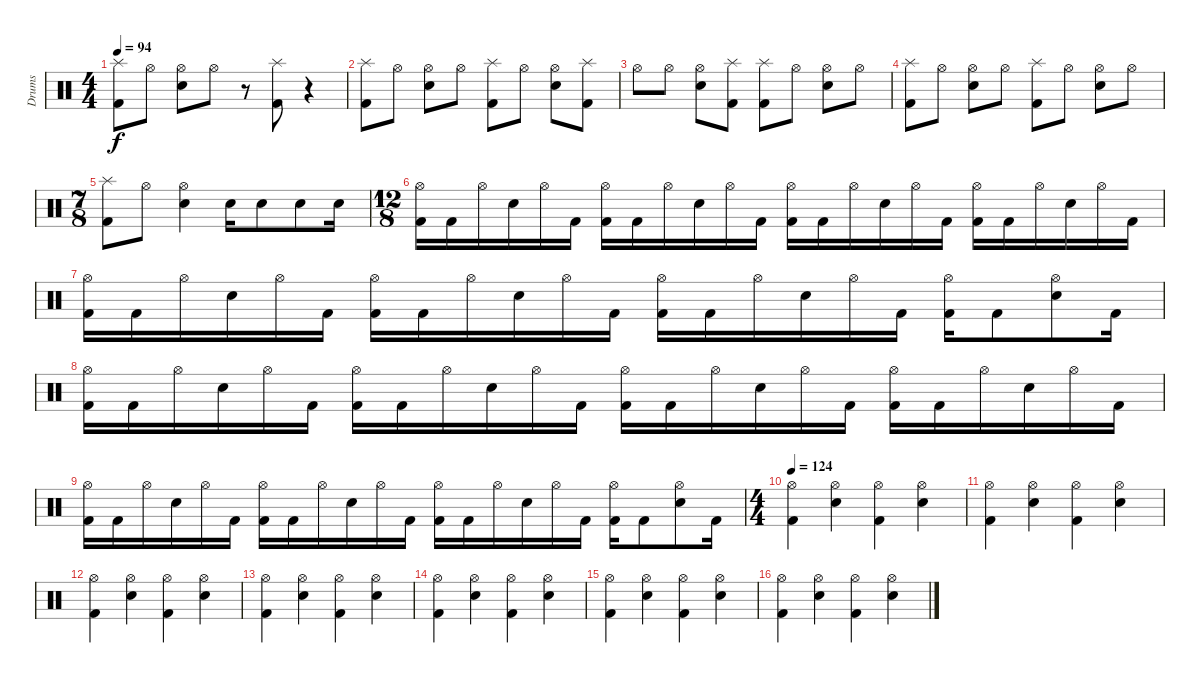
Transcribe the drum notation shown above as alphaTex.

\track ("Drums" "Drums") {instrument percussion}
\staff {score}
\articulation defaults
\ts (4 4)
\tempo 94
\clef neutral
\ks c
("Splash (hit)" "Kick (hit) 2").8{dy f} "Hi-Hat (open)".8 ("Hi-Hat (open)" "Electric Snare (hit)").8 "Hi-Hat (open)".8 r.8 ("Splash (hit)" "Kick (hit) 2").8 r.4 |
("Splash (hit)" "Kick (hit) 2").8 "Hi-Hat (open)".8 ("Hi-Hat (open)" "Electric Snare (hit)").8 "Hi-Hat (open)".8 ("Splash (hit)" "Kick (hit) 2").8 "Hi-Hat (open)".8 ("Hi-Hat (open)" "Electric Snare (hit)").8 ("Splash (hit)" "Kick (hit) 2").8 |
"Hi-Hat (open)".8 "Hi-Hat (open)".8 ("Hi-Hat (open)" "Electric Snare (hit)").8 ("Splash (hit)" "Kick (hit) 2").8 ("Splash (hit)" "Kick (hit) 2").8 "Hi-Hat (open)".8 ("Hi-Hat (open)" "Electric Snare (hit)").8 "Hi-Hat (open)".8 |
("Splash (hit)" "Kick (hit) 2").8 "Hi-Hat (open)".8 ("Hi-Hat (open)" "Electric Snare (hit)").8 "Hi-Hat (open)".8 ("Splash (hit)" "Kick (hit) 2").8 "Hi-Hat (open)".8 ("Hi-Hat (open)" "Electric Snare (hit)").8 "Hi-Hat (open)".8 |
\ts (7 8)
("Splash (hit)" "Kick (hit) 2").8 "Hi-Hat (open)".8 ("Hi-Hat (open)" "Electric Snare (hit)").4 "Electric Snare (hit)".16 "Electric Snare (hit)".8 "Electric Snare (hit)".8 "Electric Snare (hit)".16 |
\ts (12 8)
("Hi-Hat (open)" "Kick (hit) 2").16 "Kick (hit) 2".16 "Hi-Hat (open)".16 "Electric Snare (hit)".16 "Hi-Hat (open)".16 "Kick (hit) 2".16 ("Hi-Hat (open)" "Kick (hit) 2").16 "Kick (hit) 2".16 "Hi-Hat (open)".16 "Electric Snare (hit)".16 "Hi-Hat (open)".16 "Kick (hit) 2".16 ("Hi-Hat (open)" "Kick (hit) 2").16 "Kick (hit) 2".16 "Hi-Hat (open)".16 "Electric Snare (hit)".16 "Hi-Hat (open)".16 "Kick (hit) 2".16 ("Hi-Hat (open)" "Kick (hit) 2").16 "Kick (hit) 2".16 "Hi-Hat (open)".16 "Electric Snare (hit)".16 "Hi-Hat (open)".16 "Kick (hit) 2".16 |
("Hi-Hat (open)" "Kick (hit) 2").16 "Kick (hit) 2".16 "Hi-Hat (open)".16 "Electric Snare (hit)".16 "Hi-Hat (open)".16 "Kick (hit) 2".16 ("Hi-Hat (open)" "Kick (hit) 2").16 "Kick (hit) 2".16 "Hi-Hat (open)".16 "Electric Snare (hit)".16 "Hi-Hat (open)".16 "Kick (hit) 2".16 ("Hi-Hat (open)" "Kick (hit) 2").16 "Kick (hit) 2".16 "Hi-Hat (open)".16 "Electric Snare (hit)".16 "Hi-Hat (open)".16 "Kick (hit) 2".16 ("Hi-Hat (open)" "Kick (hit) 2").16 "Kick (hit) 2".8 ("Hi-Hat (open)" "Electric Snare (hit)").8 "Kick (hit) 2".16 |
("Hi-Hat (open)" "Kick (hit) 2").16 "Kick (hit) 2".16 "Hi-Hat (open)".16 "Electric Snare (hit)".16 "Hi-Hat (open)".16 "Kick (hit) 2".16 ("Hi-Hat (open)" "Kick (hit) 2").16 "Kick (hit) 2".16 "Hi-Hat (open)".16 "Electric Snare (hit)".16 "Hi-Hat (open)".16 "Kick (hit) 2".16 ("Hi-Hat (open)" "Kick (hit) 2").16 "Kick (hit) 2".16 "Hi-Hat (open)".16 "Electric Snare (hit)".16 "Hi-Hat (open)".16 "Kick (hit) 2".16 ("Hi-Hat (open)" "Kick (hit) 2").16 "Kick (hit) 2".16 "Hi-Hat (open)".16 "Electric Snare (hit)".16 "Hi-Hat (open)".16 "Kick (hit) 2".16 |
("Hi-Hat (open)" "Kick (hit) 2").16 "Kick (hit) 2".16 "Hi-Hat (open)".16 "Electric Snare (hit)".16 "Hi-Hat (open)".16 "Kick (hit) 2".16 ("Hi-Hat (open)" "Kick (hit) 2").16 "Kick (hit) 2".16 "Hi-Hat (open)".16 "Electric Snare (hit)".16 "Hi-Hat (open)".16 "Kick (hit) 2".16 ("Hi-Hat (open)" "Kick (hit) 2").16 "Kick (hit) 2".16 "Hi-Hat (open)".16 "Electric Snare (hit)".16 "Hi-Hat (open)".16 "Kick (hit) 2".16 ("Hi-Hat (open)" "Kick (hit) 2").16 "Kick (hit) 2".8 ("Hi-Hat (open)" "Electric Snare (hit)").8 "Kick (hit) 2".16 |
\ts (4 4)
\tempo 124
("Hi-Hat (open)" "Kick (hit) 2").4 ("Hi-Hat (open)" "Electric Snare (hit)").4 ("Hi-Hat (open)" "Kick (hit) 2").4 ("Hi-Hat (open)" "Electric Snare (hit)").4 |
("Hi-Hat (open)" "Kick (hit) 2").4 ("Hi-Hat (open)" "Electric Snare (hit)").4 ("Hi-Hat (open)" "Kick (hit) 2").4 ("Hi-Hat (open)" "Electric Snare (hit)").4 |
("Hi-Hat (open)" "Kick (hit) 2").4 ("Hi-Hat (open)" "Electric Snare (hit)").4 ("Hi-Hat (open)" "Kick (hit) 2").4 ("Hi-Hat (open)" "Electric Snare (hit)").4 |
("Hi-Hat (open)" "Kick (hit) 2").4 ("Hi-Hat (open)" "Electric Snare (hit)").4 ("Hi-Hat (open)" "Kick (hit) 2").4 ("Hi-Hat (open)" "Electric Snare (hit)").4 |
("Hi-Hat (open)" "Kick (hit) 2").4 ("Hi-Hat (open)" "Electric Snare (hit)").4 ("Hi-Hat (open)" "Kick (hit) 2").4 ("Hi-Hat (open)" "Electric Snare (hit)").4 |
("Hi-Hat (open)" "Kick (hit) 2").4 ("Hi-Hat (open)" "Electric Snare (hit)").4 ("Hi-Hat (open)" "Kick (hit) 2").4 ("Hi-Hat (open)" "Electric Snare (hit)").4 |
("Hi-Hat (open)" "Kick (hit) 2").4 ("Hi-Hat (open)" "Electric Snare (hit)").4 ("Hi-Hat (open)" "Kick (hit) 2").4 ("Hi-Hat (open)" "Electric Snare (hit)").4
